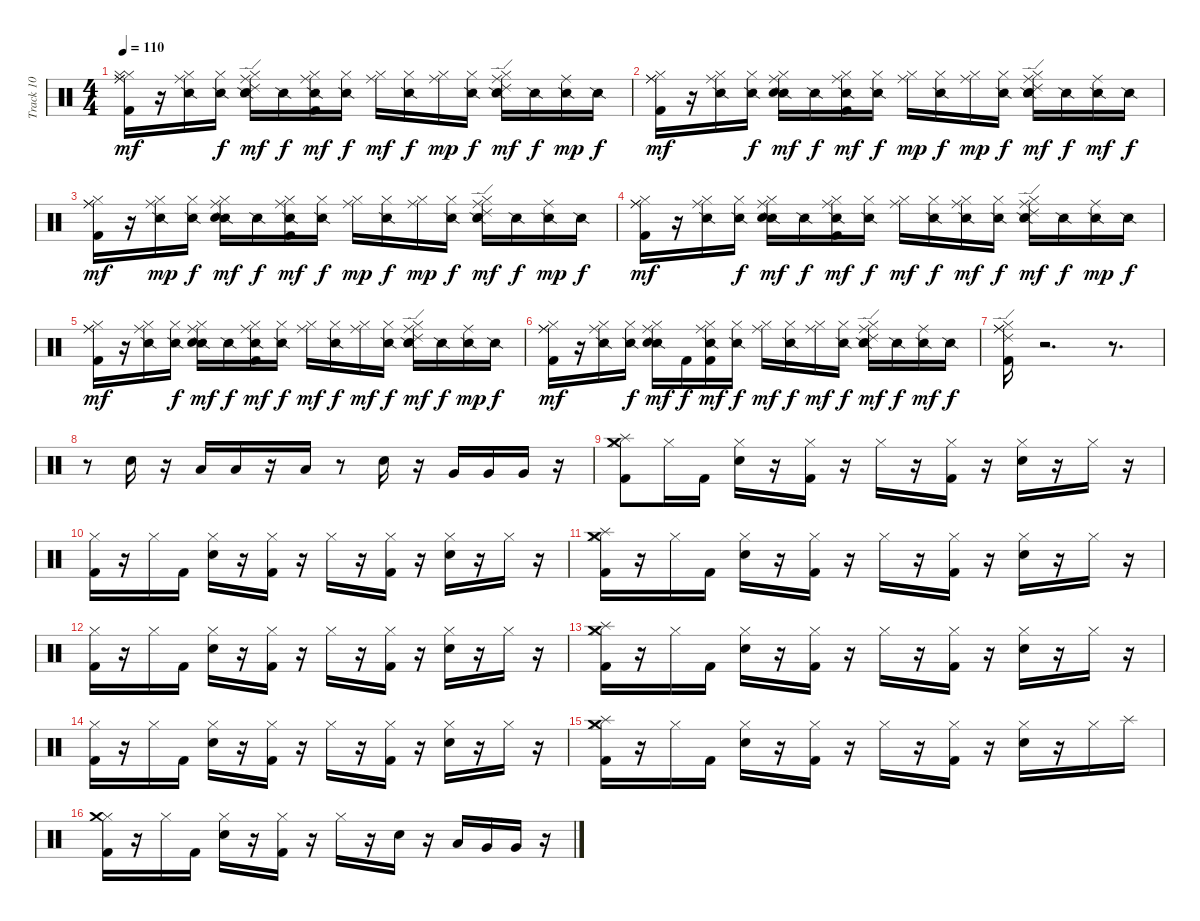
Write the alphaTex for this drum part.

\track ("Track 10" "Track 10") {instrument percussion}
\staff {score}
\articulation defaults
\ts (4 4)
\tempo 110
\clef neutral
\ks c
("Ride (middle)" "Kick (hit) 2" "Hi-Hat (closed)" "Hi-Hat (closed)" "Ride (middle)").16{dy mf} r.16 ("Ride (middle)" "Snare (side stick) 2" "Hi-Hat (closed)").16 ("Snare (side stick) 2" "Hi-Hat (closed)").16{dy f} ("Ride (middle)" "Snare (side stick) 2" "Hi-Hat (closed)" "Electric Snare (hit)" "Ride (edge) 2").16{dy mf} "Snare (side stick) 2".16{dy f} ("Ride (middle)" "Kick (hit) 2" "Snare (side stick) 2" "Hi-Hat (closed)").16{dy mf} ("Snare (side stick) 2" "Hi-Hat (closed)").16{dy f} ("Ride (middle)" "Hi-Hat (closed)").16{dy mf} ("Snare (side stick) 2" "Hi-Hat (closed)").16{dy f} ("Ride (middle)" "Hi-Hat (closed)").16{dy mp} ("Snare (side stick) 2" "Hi-Hat (closed)").16{dy f} ("Ride (middle)" "Snare (side stick) 2" "Hi-Hat (closed)" "Electric Snare (hit)" "Ride (edge) 2").16{dy mf} "Snare (side stick) 2".16{dy f} ("Ride (middle)" "Snare (side stick) 2").16{dy mp} "Snare (side stick) 2".16{dy f} |
("Ride (middle)" "Kick (hit) 2" "Hi-Hat (closed)" "Ride (middle)").16{dy mf} r.16 ("Ride (middle)" "Snare (side stick) 2" "Hi-Hat (closed)").16 ("Snare (side stick) 2" "Hi-Hat (closed)").16{dy f} ("Ride (middle)" "Snare (side stick) 2" "Electric Snare (hit)" "Hi-Hat (closed)").16{dy mf} "Snare (side stick) 2".16{dy f} ("Ride (middle)" "Kick (hit) 2" "Snare (side stick) 2" "Hi-Hat (closed)").16{dy mf} ("Snare (side stick) 2" "Hi-Hat (closed)").16{dy f} ("Ride (middle)" "Hi-Hat (closed)").16{dy mp} ("Snare (side stick) 2" "Hi-Hat (closed)").16{dy f} ("Ride (middle)" "Hi-Hat (closed)").16{dy mp} ("Snare (side stick) 2" "Hi-Hat (closed)").16{dy f} ("Ride (middle)" "Snare (side stick) 2" "Hi-Hat (closed)" "Electric Snare (hit)" "Ride (edge) 2").16{dy mf} "Snare (side stick) 2".16{dy f} ("Ride (middle)" "Snare (side stick) 2").16{dy mf} "Snare (side stick) 2".16{dy f} |
("Ride (middle)" "Kick (hit) 2" "Hi-Hat (closed)" "Ride (middle)").16{dy mf} r.16 ("Ride (middle)" "Snare (side stick) 2" "Hi-Hat (closed)").16{dy mp} ("Snare (side stick) 2" "Hi-Hat (closed)").16{dy f} ("Ride (middle)" "Snare (side stick) 2" "Electric Snare (hit)" "Hi-Hat (closed)").16{dy mf} "Snare (side stick) 2".16{dy f} ("Ride (middle)" "Kick (hit) 2" "Snare (side stick) 2" "Hi-Hat (closed)").16{dy mf} ("Snare (side stick) 2" "Hi-Hat (closed)").16{dy f} ("Ride (middle)" "Hi-Hat (closed)").16{dy mp} ("Snare (side stick) 2" "Hi-Hat (closed)").16{dy f} ("Ride (middle)" "Hi-Hat (closed)").16{dy mp} ("Snare (side stick) 2" "Hi-Hat (closed)").16{dy f} ("Ride (middle)" "Snare (side stick) 2" "Hi-Hat (closed)" "Electric Snare (hit)" "Ride (edge) 2").16{dy mf} "Snare (side stick) 2".16{dy f} ("Ride (middle)" "Snare (side stick) 2").16{dy mp} "Snare (side stick) 2".16{dy f} |
("Ride (middle)" "Kick (hit) 2" "Hi-Hat (closed)" "Ride (middle)").16{dy mf} r.16 ("Ride (middle)" "Snare (side stick) 2" "Hi-Hat (closed)").16 ("Snare (side stick) 2" "Hi-Hat (closed)").16{dy f} ("Ride (middle)" "Snare (side stick) 2" "Electric Snare (hit)" "Hi-Hat (closed)").16{dy mf} "Snare (side stick) 2".16{dy f} ("Ride (middle)" "Kick (hit) 2" "Snare (side stick) 2" "Hi-Hat (closed)").16{dy mf} ("Snare (side stick) 2" "Hi-Hat (closed)").16{dy f} ("Ride (middle)" "Hi-Hat (closed)").16{dy mf} ("Snare (side stick) 2" "Hi-Hat (closed)").16{dy f} ("Ride (middle)" "Snare (side stick) 2" "Hi-Hat (closed)").16{dy mf} ("Snare (side stick) 2" "Hi-Hat (closed)").16{dy f} ("Ride (middle)" "Snare (side stick) 2" "Hi-Hat (closed)" "Electric Snare (hit)" "Ride (edge) 2").16{dy mf} "Snare (side stick) 2".16{dy f} ("Ride (middle)" "Snare (side stick) 2").16{dy mp} "Snare (side stick) 2".16{dy f} |
("Ride (middle)" "Kick (hit) 2" "Hi-Hat (closed)" "Ride (middle)").16{dy mf} r.16 ("Ride (middle)" "Snare (side stick) 2" "Hi-Hat (closed)").16 ("Snare (side stick) 2" "Hi-Hat (closed)").16{dy f} ("Ride (middle)" "Snare (side stick) 2" "Hi-Hat (closed)" "Electric Snare (hit)").16{dy mf} "Snare (side stick) 2".16{dy f} ("Ride (middle)" "Kick (hit) 2" "Snare (side stick) 2" "Hi-Hat (closed)").16{dy mf} ("Snare (side stick) 2" "Hi-Hat (closed)").16{dy f} ("Ride (middle)" "Hi-Hat (closed)").16{dy mf} ("Snare (side stick) 2" "Hi-Hat (closed)").16{dy f} ("Ride (middle)" "Hi-Hat (closed)").16{dy mf} ("Snare (side stick) 2" "Hi-Hat (closed)").16{dy f} ("Ride (middle)" "Snare (side stick) 2" "Hi-Hat (closed)" "Electric Snare (hit)" "Ride (edge) 2").16{dy mf} "Snare (side stick) 2".16{dy f} ("Ride (middle)" "Snare (side stick) 2").16{dy mp} "Snare (side stick) 2".16{dy f} |
("Ride (middle)" "Kick (hit) 2" "Hi-Hat (closed)" "Ride (middle)").16{dy mf} r.16 ("Ride (middle)" "Snare (side stick) 2" "Hi-Hat (closed)").16 ("Snare (side stick) 2" "Hi-Hat (closed)").16{dy f} ("Ride (middle)" "Snare (side stick) 2" "Hi-Hat (closed)" "Electric Snare (hit)").16{dy mf} "Kick (hit) 2".16{dy f} ("Ride (middle)" "Kick (hit) 2" "Snare (side stick) 2" "Hi-Hat (closed)").16{dy mf} ("Snare (side stick) 2" "Hi-Hat (closed)").16{dy f} ("Ride (middle)" "Hi-Hat (closed)").16{dy mf} ("Snare (side stick) 2" "Hi-Hat (closed)").16{dy f} ("Ride (middle)" "Hi-Hat (closed)").16{dy mf} ("Snare (side stick) 2" "Hi-Hat (closed)").16{dy f} ("Ride (middle)" "Snare (side stick) 2" "Electric Snare (hit)" "Hi-Hat (closed)" "Ride (edge) 2").16{dy mf} "Snare (side stick) 2".16{dy f} ("Ride (middle)" "Snare (side stick) 2").16{dy mf} "Snare (side stick) 2".16{dy f} |
("Ride (middle)" "Kick (hit) 2" "Hi-Hat (closed)" "Ride (middle)" "Ride (edge) 2").16 r.2{d} r.8{d} |
r.8 "Snare (hit) 2".16 r.16 "Low Tom (hit)".16 "Low Tom (hit)".16 r.16 "Low Tom (hit)".16 r.8 "Snare (hit) 2".16 r.16 "Very Low Tom (hit)".16 "Very Low Tom (hit)".16 "Very Low Tom (hit)".16 r.16 |
("Kick (hit) 2" "Hi-Hat (closed)" "Splash (hit)" "Crash medium (hit)").8 "Hi-Hat (closed)".16 "Kick (hit) 2".16 ("Snare (hit) 2" "Hi-Hat (closed)").16 r.16 ("Kick (hit) 2" "Hi-Hat (closed)").16 r.16 "Hi-Hat (closed)".16 r.16 ("Kick (hit) 2" "Hi-Hat (closed)").16 r.16 ("Snare (hit) 2" "Hi-Hat (closed)").16 r.16 "Hi-Hat (closed)".16 r.16 |
("Kick (hit) 2" "Hi-Hat (closed)").16 r.16 "Hi-Hat (closed)".16 "Kick (hit) 2".16 ("Snare (hit) 2" "Hi-Hat (closed)").16 r.16 ("Kick (hit) 2" "Hi-Hat (closed)").16 r.16 "Hi-Hat (closed)".16 r.16 ("Kick (hit) 2" "Hi-Hat (closed)").16 r.16 ("Snare (hit) 2" "Hi-Hat (closed)").16 r.16 "Hi-Hat (closed)".16 r.16 |
("Kick (hit) 2" "Hi-Hat (closed)" "Splash (hit)" "Crash medium (hit)").16 r.16 "Hi-Hat (closed)".16 "Kick (hit) 2".16 ("Snare (hit) 2" "Hi-Hat (closed)").16 r.16 ("Kick (hit) 2" "Hi-Hat (closed)").16 r.16 "Hi-Hat (closed)".16 r.16 ("Kick (hit) 2" "Hi-Hat (closed)").16 r.16 ("Snare (hit) 2" "Hi-Hat (closed)").16 r.16 "Hi-Hat (closed)".16 r.16 |
("Kick (hit) 2" "Hi-Hat (closed)").16 r.16 "Hi-Hat (closed)".16 "Kick (hit) 2".16 ("Snare (hit) 2" "Hi-Hat (closed)").16 r.16 ("Kick (hit) 2" "Hi-Hat (closed)").16 r.16 "Hi-Hat (closed)".16 r.16 ("Kick (hit) 2" "Hi-Hat (closed)").16 r.16 ("Snare (hit) 2" "Hi-Hat (closed)").16 r.16 "Hi-Hat (closed)".16 r.16 |
("Kick (hit) 2" "Hi-Hat (closed)" "Splash (hit)" "Crash medium (hit)").16 r.16 "Hi-Hat (closed)".16 "Kick (hit) 2".16 ("Snare (hit) 2" "Hi-Hat (closed)").16 r.16 ("Kick (hit) 2" "Hi-Hat (closed)").16 r.16 "Hi-Hat (closed)".16 r.16 ("Kick (hit) 2" "Hi-Hat (closed)").16 r.16 ("Hi-Hat (closed)" "Snare (hit) 2").16 r.16 "Hi-Hat (closed)".16 r.16 |
("Kick (hit) 2" "Hi-Hat (closed)").16 r.16 "Hi-Hat (closed)".16 "Kick (hit) 2".16 ("Snare (hit) 2" "Hi-Hat (closed)").16 r.16 ("Kick (hit) 2" "Hi-Hat (closed)").16 r.16 "Hi-Hat (closed)".16 r.16 ("Kick (hit) 2" "Hi-Hat (closed)").16 r.16 ("Snare (hit) 2" "Hi-Hat (closed)").16 r.16 "Hi-Hat (closed)".16 r.16 |
("Kick (hit) 2" "Hi-Hat (closed)" "Splash (hit)" "Crash medium (hit)").16 r.16 "Hi-Hat (closed)".16 "Kick (hit) 2".16 ("Snare (hit) 2" "Hi-Hat (closed)").16 r.16 ("Kick (hit) 2" "Hi-Hat (closed)").16 r.16 "Hi-Hat (closed)".16 r.16 ("Kick (hit) 2" "Hi-Hat (closed)").16 r.16 ("Snare (hit) 2" "Hi-Hat (closed)").16 r.16 "Hi-Hat (closed)".16 "Splash (hit)".16 |
("Kick (hit) 2" "Hi-Hat (closed)" "Crash medium (hit)").16 r.16 "Hi-Hat (closed)".16 "Kick (hit) 2".16 ("Hi-Hat (closed)" "Snare (hit) 2").16 r.16 ("Kick (hit) 2" "Hi-Hat (closed)").16 r.16 "Hi-Hat (closed)".16 r.16 "Snare (hit) 2".16 r.16 "Low Tom (hit)".16 "Very Low Tom (hit)".16 "Very Low Tom (hit)".16 r.16
